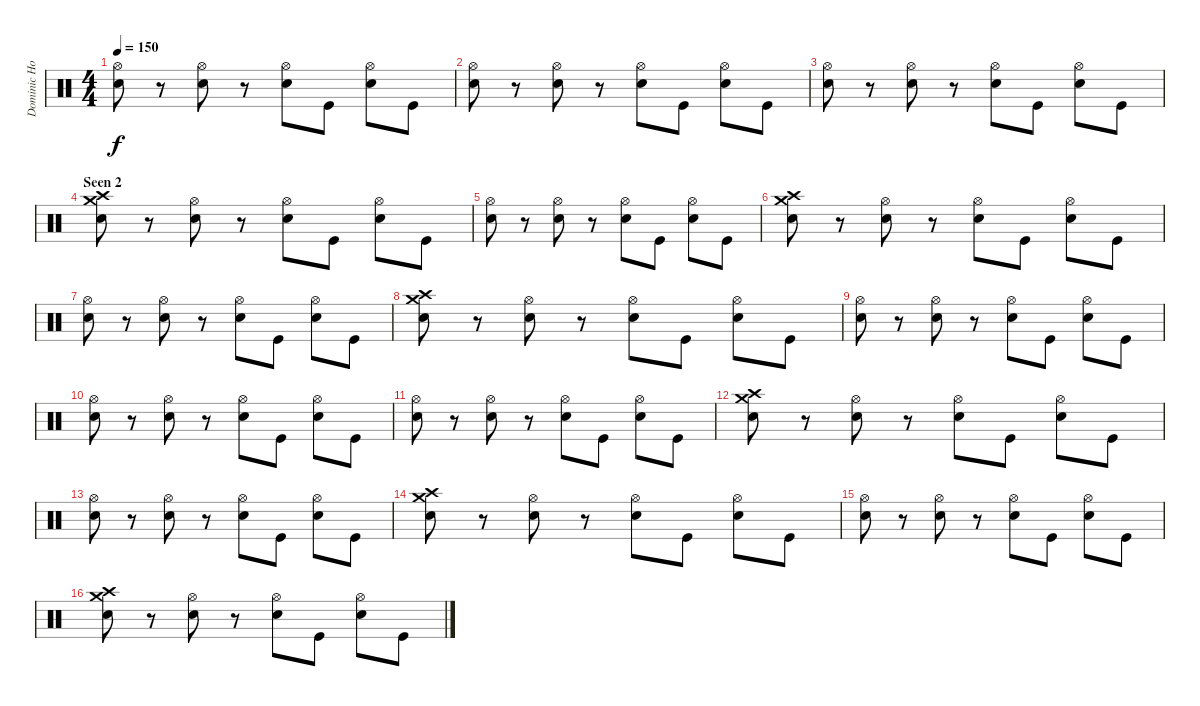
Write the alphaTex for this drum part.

\track ("Dominic Howard" "Dominic Ho") {instrument percussion}
\staff {score}
\articulation defaults
\ts (4 4)
\tempo 150
\clef neutral
\ks c
("Hi-Hat (open)" "Snare (hit) 2").8{dy f} r.8 ("Hi-Hat (open)" "Snare (hit) 2").8 r.8 ("Hi-Hat (open)" "Snare (hit) 2").8 "Kick (hit)".8 ("Hi-Hat (open)" "Snare (hit) 2").8 "Kick (hit)".8 |
("Hi-Hat (open)" "Snare (hit) 2").8 r.8 ("Hi-Hat (open)" "Snare (hit) 2").8 r.8 ("Hi-Hat (open)" "Snare (hit) 2").8 "Kick (hit)".8 ("Hi-Hat (open)" "Snare (hit) 2").8 "Kick (hit)".8 |
("Hi-Hat (open)" "Snare (hit) 2").8 r.8 ("Hi-Hat (open)" "Snare (hit) 2").8 r.8 ("Hi-Hat (open)" "Snare (hit) 2").8 "Kick (hit)".8 ("Hi-Hat (open)" "Snare (hit) 2").8 "Kick (hit)".8 |
\section ("" "Seen 2")
("Crash high (hit)" "Snare (hit) 2" "Crash medium (hit)").8 r.8 ("Hi-Hat (open)" "Snare (hit) 2").8 r.8 ("Hi-Hat (open)" "Snare (hit) 2").8 "Kick (hit)".8 ("Hi-Hat (open)" "Snare (hit) 2").8 "Kick (hit)".8 |
("Hi-Hat (open)" "Snare (hit) 2").8 r.8 ("Hi-Hat (open)" "Snare (hit) 2").8 r.8 ("Hi-Hat (open)" "Snare (hit) 2").8 "Kick (hit)".8 ("Hi-Hat (open)" "Snare (hit) 2").8 "Kick (hit)".8 |
("Crash high (hit)" "Snare (hit) 2" "Crash medium (hit)").8 r.8 ("Hi-Hat (open)" "Snare (hit) 2").8 r.8 ("Hi-Hat (open)" "Snare (hit) 2").8 "Kick (hit)".8 ("Hi-Hat (open)" "Snare (hit) 2").8 "Kick (hit)".8 |
("Hi-Hat (open)" "Snare (hit) 2").8 r.8 ("Hi-Hat (open)" "Snare (hit) 2").8 r.8 ("Hi-Hat (open)" "Snare (hit) 2").8 "Kick (hit)".8 ("Hi-Hat (open)" "Snare (hit) 2").8 "Kick (hit)".8 |
("Crash high (hit)" "Snare (hit) 2" "Crash medium (hit)").8 r.8 ("Hi-Hat (open)" "Snare (hit) 2").8 r.8 ("Hi-Hat (open)" "Snare (hit) 2").8 "Kick (hit)".8 ("Hi-Hat (open)" "Snare (hit) 2").8 "Kick (hit)".8 |
("Hi-Hat (open)" "Snare (hit) 2").8 r.8 ("Hi-Hat (open)" "Snare (hit) 2").8 r.8 ("Hi-Hat (open)" "Snare (hit) 2").8 "Kick (hit)".8 ("Hi-Hat (open)" "Snare (hit) 2").8 "Kick (hit)".8 |
("Hi-Hat (open)" "Snare (hit) 2").8 r.8 ("Hi-Hat (open)" "Snare (hit) 2").8 r.8 ("Hi-Hat (open)" "Snare (hit) 2").8 "Kick (hit)".8 ("Hi-Hat (open)" "Snare (hit) 2").8 "Kick (hit)".8 |
("Hi-Hat (open)" "Snare (hit) 2").8 r.8 ("Hi-Hat (open)" "Snare (hit) 2").8 r.8 ("Hi-Hat (open)" "Snare (hit) 2").8 "Kick (hit)".8 ("Hi-Hat (open)" "Snare (hit) 2").8 "Kick (hit)".8 |
("Crash high (hit)" "Snare (hit) 2" "Crash medium (hit)").8 r.8 ("Hi-Hat (open)" "Snare (hit) 2").8 r.8 ("Hi-Hat (open)" "Snare (hit) 2").8 "Kick (hit)".8 ("Hi-Hat (open)" "Snare (hit) 2").8 "Kick (hit)".8 |
("Hi-Hat (open)" "Snare (hit) 2").8 r.8 ("Hi-Hat (open)" "Snare (hit) 2").8 r.8 ("Hi-Hat (open)" "Snare (hit) 2").8 "Kick (hit)".8 ("Hi-Hat (open)" "Snare (hit) 2").8 "Kick (hit)".8 |
("Crash high (hit)" "Snare (hit) 2" "Crash medium (hit)").8 r.8 ("Hi-Hat (open)" "Snare (hit) 2").8 r.8 ("Hi-Hat (open)" "Snare (hit) 2").8 "Kick (hit)".8 ("Hi-Hat (open)" "Snare (hit) 2").8 "Kick (hit)".8 |
("Hi-Hat (open)" "Snare (hit) 2").8 r.8 ("Hi-Hat (open)" "Snare (hit) 2").8 r.8 ("Hi-Hat (open)" "Snare (hit) 2").8 "Kick (hit)".8 ("Hi-Hat (open)" "Snare (hit) 2").8 "Kick (hit)".8 |
("Crash high (hit)" "Snare (hit) 2" "Crash medium (hit)").8 r.8 ("Hi-Hat (open)" "Snare (hit) 2").8 r.8 ("Hi-Hat (open)" "Snare (hit) 2").8 "Kick (hit)".8 ("Hi-Hat (open)" "Snare (hit) 2").8 "Kick (hit)".8
